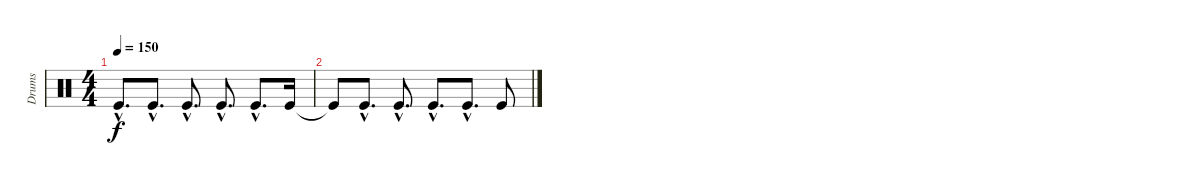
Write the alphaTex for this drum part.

\track ("Drums" "Drums") {instrument percussion}
\staff {score}
\articulation defaults
\ts (4 4)
\tempo 150
\clef neutral
\ks c "Kick (hit)"{hac}.8{d dy f volume 0} "Kick (hit)"{hac}.8{d} "Kick (hit)"{hac}.8{d} "Kick (hit)"{hac}.8{d} "Kick (hit)"{hac}.8{d} "Kick (hit)".16
|
"Kick (hit)"{t}.8 "Kick (hit)"{hac}.8{d} "Kick (hit)"{hac}.8{d} "Kick (hit)"{hac}.8{d} "Kick (hit)"{hac}.8{d} "Kick (hit)".8
